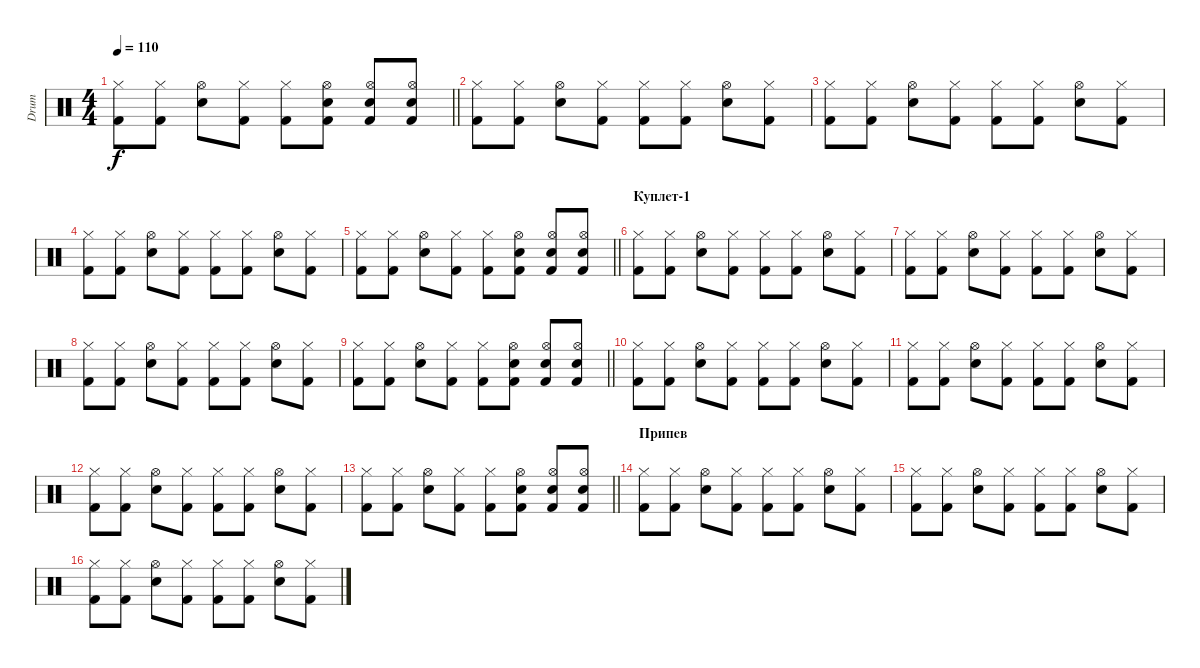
\track ("Drum" "Drum") {instrument percussion}
\staff {score}
\articulation defaults
\ts (4 4)
\tempo 110
\clef neutral
\barLineRight lightlight
\ks c
("Hi-Hat (closed)" "Kick (hit) 2").8{dy f} ("Hi-Hat (closed)" "Kick (hit) 2").8 ("Hi-Hat (open)" "Snare (hit) 2").8 ("Hi-Hat (closed)" "Kick (hit) 2").8 ("Hi-Hat (closed)" "Kick (hit) 2").8 ("Hi-Hat (open)" "Snare (hit) 2" "Kick (hit) 2").8 ("Hi-Hat (open)" "Snare (hit) 2" "Kick (hit) 2").8 ("Hi-Hat (open)" "Snare (hit) 2" "Kick (hit) 2").8 |
("Hi-Hat (closed)" "Kick (hit) 2").8 ("Hi-Hat (closed)" "Kick (hit) 2").8 ("Hi-Hat (open)" "Snare (hit) 2").8 ("Hi-Hat (closed)" "Kick (hit) 2").8 ("Hi-Hat (closed)" "Kick (hit) 2").8 ("Hi-Hat (closed)" "Kick (hit) 2").8 ("Hi-Hat (open)" "Snare (hit) 2").8 ("Hi-Hat (closed)" "Kick (hit) 2").8 |
("Hi-Hat (closed)" "Kick (hit) 2").8 ("Hi-Hat (closed)" "Kick (hit) 2").8 ("Hi-Hat (open)" "Snare (hit) 2").8 ("Hi-Hat (closed)" "Kick (hit) 2").8 ("Hi-Hat (closed)" "Kick (hit) 2").8 ("Hi-Hat (closed)" "Kick (hit) 2").8 ("Hi-Hat (open)" "Snare (hit) 2").8 ("Hi-Hat (closed)" "Kick (hit) 2").8 |
("Hi-Hat (closed)" "Kick (hit) 2").8 ("Hi-Hat (closed)" "Kick (hit) 2").8 ("Hi-Hat (open)" "Snare (hit) 2").8 ("Hi-Hat (closed)" "Kick (hit) 2").8 ("Hi-Hat (closed)" "Kick (hit) 2").8 ("Hi-Hat (closed)" "Kick (hit) 2").8 ("Hi-Hat (open)" "Snare (hit) 2").8 ("Hi-Hat (closed)" "Kick (hit) 2").8 |
\barLineRight lightlight
("Hi-Hat (closed)" "Kick (hit) 2").8 ("Hi-Hat (closed)" "Kick (hit) 2").8 ("Hi-Hat (open)" "Snare (hit) 2").8 ("Hi-Hat (closed)" "Kick (hit) 2").8 ("Hi-Hat (closed)" "Kick (hit) 2").8 ("Hi-Hat (open)" "Snare (hit) 2" "Kick (hit) 2").8 ("Hi-Hat (open)" "Snare (hit) 2" "Kick (hit) 2").8 ("Hi-Hat (open)" "Snare (hit) 2" "Kick (hit) 2").8 |
\section ("" "Куплет-1")
("Hi-Hat (closed)" "Kick (hit) 2").8 ("Hi-Hat (closed)" "Kick (hit) 2").8 ("Hi-Hat (open)" "Snare (hit) 2").8 ("Hi-Hat (closed)" "Kick (hit) 2").8 ("Hi-Hat (closed)" "Kick (hit) 2").8 ("Hi-Hat (closed)" "Kick (hit) 2").8 ("Hi-Hat (open)" "Snare (hit) 2").8 ("Hi-Hat (closed)" "Kick (hit) 2").8 |
("Hi-Hat (closed)" "Kick (hit) 2").8 ("Hi-Hat (closed)" "Kick (hit) 2").8 ("Hi-Hat (open)" "Snare (hit) 2").8 ("Hi-Hat (closed)" "Kick (hit) 2").8 ("Hi-Hat (closed)" "Kick (hit) 2").8 ("Hi-Hat (closed)" "Kick (hit) 2").8 ("Hi-Hat (open)" "Snare (hit) 2").8 ("Hi-Hat (closed)" "Kick (hit) 2").8 |
("Hi-Hat (closed)" "Kick (hit) 2").8 ("Hi-Hat (closed)" "Kick (hit) 2").8 ("Hi-Hat (open)" "Snare (hit) 2").8 ("Hi-Hat (closed)" "Kick (hit) 2").8 ("Hi-Hat (closed)" "Kick (hit) 2").8 ("Hi-Hat (closed)" "Kick (hit) 2").8 ("Hi-Hat (open)" "Snare (hit) 2").8 ("Hi-Hat (closed)" "Kick (hit) 2").8 |
\barLineRight lightlight
("Hi-Hat (closed)" "Kick (hit) 2").8 ("Hi-Hat (closed)" "Kick (hit) 2").8 ("Hi-Hat (open)" "Snare (hit) 2").8 ("Hi-Hat (closed)" "Kick (hit) 2").8 ("Hi-Hat (closed)" "Kick (hit) 2").8 ("Hi-Hat (open)" "Snare (hit) 2" "Kick (hit) 2").8 ("Hi-Hat (open)" "Snare (hit) 2" "Kick (hit) 2").8 ("Hi-Hat (open)" "Snare (hit) 2" "Kick (hit) 2").8 |
("Hi-Hat (closed)" "Kick (hit) 2").8 ("Hi-Hat (closed)" "Kick (hit) 2").8 ("Hi-Hat (open)" "Snare (hit) 2").8 ("Hi-Hat (closed)" "Kick (hit) 2").8 ("Hi-Hat (closed)" "Kick (hit) 2").8 ("Hi-Hat (closed)" "Kick (hit) 2").8 ("Hi-Hat (open)" "Snare (hit) 2").8 ("Hi-Hat (closed)" "Kick (hit) 2").8 |
("Hi-Hat (closed)" "Kick (hit) 2").8 ("Hi-Hat (closed)" "Kick (hit) 2").8 ("Hi-Hat (open)" "Snare (hit) 2").8 ("Hi-Hat (closed)" "Kick (hit) 2").8 ("Hi-Hat (closed)" "Kick (hit) 2").8 ("Hi-Hat (closed)" "Kick (hit) 2").8 ("Hi-Hat (open)" "Snare (hit) 2").8 ("Hi-Hat (closed)" "Kick (hit) 2").8 |
("Hi-Hat (closed)" "Kick (hit) 2").8 ("Hi-Hat (closed)" "Kick (hit) 2").8 ("Hi-Hat (open)" "Snare (hit) 2").8 ("Hi-Hat (closed)" "Kick (hit) 2").8 ("Hi-Hat (closed)" "Kick (hit) 2").8 ("Hi-Hat (closed)" "Kick (hit) 2").8 ("Hi-Hat (open)" "Snare (hit) 2").8 ("Hi-Hat (closed)" "Kick (hit) 2").8 |
\barLineRight lightlight
("Hi-Hat (closed)" "Kick (hit) 2").8 ("Hi-Hat (closed)" "Kick (hit) 2").8 ("Hi-Hat (open)" "Snare (hit) 2").8 ("Hi-Hat (closed)" "Kick (hit) 2").8 ("Hi-Hat (closed)" "Kick (hit) 2").8 ("Hi-Hat (open)" "Snare (hit) 2" "Kick (hit) 2").8 ("Hi-Hat (open)" "Snare (hit) 2" "Kick (hit) 2").8 ("Hi-Hat (open)" "Snare (hit) 2" "Kick (hit) 2").8 |
\section ("" "Припев")
("Hi-Hat (closed)" "Kick (hit) 2").8 ("Hi-Hat (closed)" "Kick (hit) 2").8 ("Hi-Hat (open)" "Snare (hit) 2").8 ("Hi-Hat (closed)" "Kick (hit) 2").8 ("Hi-Hat (closed)" "Kick (hit) 2").8 ("Hi-Hat (closed)" "Kick (hit) 2").8 ("Hi-Hat (open)" "Snare (hit) 2").8 ("Hi-Hat (closed)" "Kick (hit) 2").8 |
("Hi-Hat (closed)" "Kick (hit) 2").8 ("Hi-Hat (closed)" "Kick (hit) 2").8 ("Hi-Hat (open)" "Snare (hit) 2").8 ("Hi-Hat (closed)" "Kick (hit) 2").8 ("Hi-Hat (closed)" "Kick (hit) 2").8 ("Hi-Hat (closed)" "Kick (hit) 2").8 ("Hi-Hat (open)" "Snare (hit) 2").8 ("Hi-Hat (closed)" "Kick (hit) 2").8 |
("Hi-Hat (closed)" "Kick (hit) 2").8 ("Hi-Hat (closed)" "Kick (hit) 2").8 ("Hi-Hat (open)" "Snare (hit) 2").8 ("Hi-Hat (closed)" "Kick (hit) 2").8 ("Hi-Hat (closed)" "Kick (hit) 2").8 ("Hi-Hat (closed)" "Kick (hit) 2").8 ("Hi-Hat (open)" "Snare (hit) 2").8 ("Hi-Hat (closed)" "Kick (hit) 2").8
